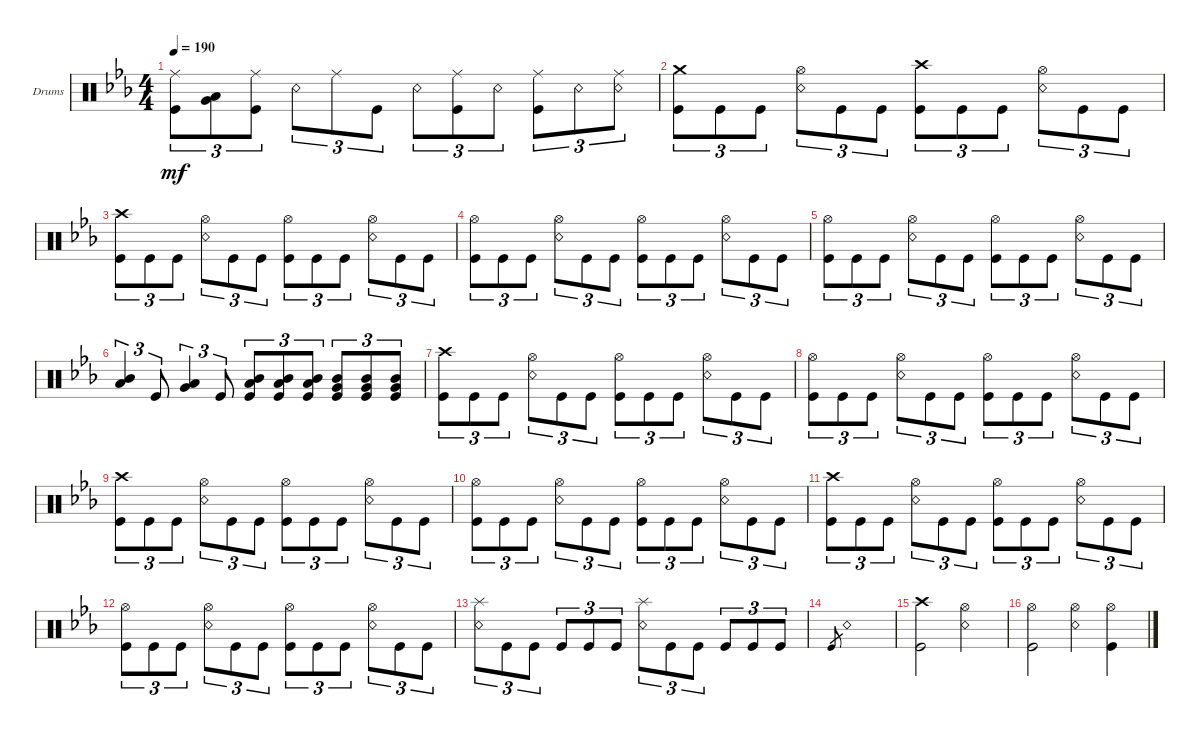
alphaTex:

\defaultSystemsLayout 4
\bracketExtendMode groupsimilarinstruments
\firstSystemTrackNameOrientation horizontal
\otherSystemsTrackNameOrientation horizontal
\track ("Drumkit" "Drums") {instrument percussion}
\staff {score}
\articulation defaults
\ts (4 4)
\tempo 190
\clef neutral
\ks cminor
("Ride (middle)" "Kick (hit)").8{tu (3 2) dy mf} ("Low Tom (hit)" "Very Low Tom (hit)").8{tu (3 2)} ("Ride (middle)" "Kick (hit)").8{tu (3 2)} "Snare (rim shot)".8{tu (3 2)} "Ride (middle)".8{tu (3 2)} "Kick (hit)".8{tu (3 2)} "Snare (rim shot)".8{tu (3 2)} ("Ride (middle)" "Kick (hit)").8{tu (3 2)} "Snare (rim shot)".8{tu (3 2)} ("Ride (middle)" "Kick (hit)").8{tu (3 2)} "Snare (rim shot)".8{tu (3 2)} ("Snare (rim shot)" "Ride (middle)").8{tu (3 2)} |
("Kick (hit)" "Crash medium (hit)").8{tu (3 2)} "Kick (hit)".8{tu (3 2)} "Kick (hit)".8{tu (3 2)} ("Snare (rim shot)" "Hi-Hat (open)").8{tu (3 2)} "Kick (hit)".8{tu (3 2)} "Kick (hit)".8{tu (3 2)} ("Kick (hit)" "Crash high (hit)").8{tu (3 2)} "Kick (hit)".8{tu (3 2)} "Kick (hit)".8{tu (3 2)} ("Snare (rim shot)" "Hi-Hat (open)").8{tu (3 2)} "Kick (hit)".8{tu (3 2)} "Kick (hit)".8{tu (3 2)} |
("Kick (hit)" "Crash high (hit)").8{tu (3 2)} "Kick (hit)".8{tu (3 2)} "Kick (hit)".8{tu (3 2)} ("Snare (rim shot)" "Hi-Hat (open)").8{tu (3 2)} "Kick (hit)".8{tu (3 2)} "Kick (hit)".8{tu (3 2)} ("Kick (hit)" "Hi-Hat (open)").8{tu (3 2)} "Kick (hit)".8{tu (3 2)} "Kick (hit)".8{tu (3 2)} ("Snare (rim shot)" "Hi-Hat (open)").8{tu (3 2)} "Kick (hit)".8{tu (3 2)} "Kick (hit)".8{tu (3 2)} |
("Kick (hit)" "Hi-Hat (open)").8{tu (3 2)} "Kick (hit)".8{tu (3 2)} "Kick (hit)".8{tu (3 2)} ("Snare (rim shot)" "Hi-Hat (open)").8{tu (3 2)} "Kick (hit)".8{tu (3 2)} "Kick (hit)".8{tu (3 2)} ("Kick (hit)" "Hi-Hat (open)").8{tu (3 2)} "Kick (hit)".8{tu (3 2)} "Kick (hit)".8{tu (3 2)} ("Snare (rim shot)" "Hi-Hat (open)").8{tu (3 2)} "Kick (hit)".8{tu (3 2)} "Kick (hit)".8{tu (3 2)} |
("Kick (hit)" "Hi-Hat (open)").8{tu (3 2)} "Kick (hit)".8{tu (3 2)} "Kick (hit)".8{tu (3 2)} ("Snare (rim shot)" "Hi-Hat (open)").8{tu (3 2)} "Kick (hit)".8{tu (3 2)} "Kick (hit)".8{tu (3 2)} ("Kick (hit)" "Hi-Hat (open)").8{tu (3 2)} "Kick (hit)".8{tu (3 2)} "Kick (hit)".8{tu (3 2)} ("Snare (rim shot)" "Hi-Hat (open)").8{tu (3 2)} "Kick (hit)".8{tu (3 2)} "Kick (hit)".8{tu (3 2)} |
("Mid Tom (hit)" "Low Tom (hit)").4{tu (3 2)} "Kick (hit)".8{tu (3 2)} ("Low Tom (hit)" "Very Low Tom (hit)").4{tu (3 2)} "Kick (hit)".8{tu (3 2)} ("Kick (hit)" "Mid Tom (hit)" "Low Tom (hit)").8{tu (3 2)} ("Kick (hit)" "Mid Tom (hit)" "Low Tom (hit)").8{tu (3 2)} ("Kick (hit)" "Mid Tom (hit)" "Low Tom (hit)").8{tu (3 2)} ("Kick (hit)" "Mid Tom (hit)" "Very Low Tom (hit)").8{tu (3 2)} ("Kick (hit)" "Mid Tom (hit)" "Very Low Tom (hit)").8{tu (3 2)} ("Kick (hit)" "Mid Tom (hit)" "Very Low Tom (hit)").8{tu (3 2)} |
("Kick (hit)" "Crash high (hit)").8{tu (3 2)} "Kick (hit)".8{tu (3 2)} "Kick (hit)".8{tu (3 2)} ("Snare (rim shot)" "Hi-Hat (open)").8{tu (3 2)} "Kick (hit)".8{tu (3 2)} "Kick (hit)".8{tu (3 2)} ("Kick (hit)" "Hi-Hat (open)").8{tu (3 2)} "Kick (hit)".8{tu (3 2)} "Kick (hit)".8{tu (3 2)} ("Snare (rim shot)" "Hi-Hat (open)").8{tu (3 2)} "Kick (hit)".8{tu (3 2)} "Kick (hit)".8{tu (3 2)} |
("Kick (hit)" "Hi-Hat (open)").8{tu (3 2)} "Kick (hit)".8{tu (3 2)} "Kick (hit)".8{tu (3 2)} ("Snare (rim shot)" "Hi-Hat (open)").8{tu (3 2)} "Kick (hit)".8{tu (3 2)} "Kick (hit)".8{tu (3 2)} ("Kick (hit)" "Hi-Hat (open)").8{tu (3 2)} "Kick (hit)".8{tu (3 2)} "Kick (hit)".8{tu (3 2)} ("Snare (rim shot)" "Hi-Hat (open)").8{tu (3 2)} "Kick (hit)".8{tu (3 2)} "Kick (hit)".8{tu (3 2)} |
("Kick (hit)" "Crash high (hit)").8{tu (3 2)} "Kick (hit)".8{tu (3 2)} "Kick (hit)".8{tu (3 2)} ("Snare (rim shot)" "Hi-Hat (open)").8{tu (3 2)} "Kick (hit)".8{tu (3 2)} "Kick (hit)".8{tu (3 2)} ("Kick (hit)" "Hi-Hat (open)").8{tu (3 2)} "Kick (hit)".8{tu (3 2)} "Kick (hit)".8{tu (3 2)} ("Snare (rim shot)" "Hi-Hat (open)").8{tu (3 2)} "Kick (hit)".8{tu (3 2)} "Kick (hit)".8{tu (3 2)} |
("Kick (hit)" "Hi-Hat (open)").8{tu (3 2)} "Kick (hit)".8{tu (3 2)} "Kick (hit)".8{tu (3 2)} ("Snare (rim shot)" "Hi-Hat (open)").8{tu (3 2)} "Kick (hit)".8{tu (3 2)} "Kick (hit)".8{tu (3 2)} ("Kick (hit)" "Hi-Hat (open)").8{tu (3 2)} "Kick (hit)".8{tu (3 2)} "Kick (hit)".8{tu (3 2)} ("Snare (rim shot)" "Hi-Hat (open)").8{tu (3 2)} "Kick (hit)".8{tu (3 2)} "Kick (hit)".8{tu (3 2)} |
("Kick (hit)" "Crash high (hit)").8{tu (3 2)} "Kick (hit)".8{tu (3 2)} "Kick (hit)".8{tu (3 2)} ("Snare (rim shot)" "Hi-Hat (open)").8{tu (3 2)} "Kick (hit)".8{tu (3 2)} "Kick (hit)".8{tu (3 2)} ("Kick (hit)" "Hi-Hat (open)").8{tu (3 2)} "Kick (hit)".8{tu (3 2)} "Kick (hit)".8{tu (3 2)} ("Snare (rim shot)" "Hi-Hat (open)").8{tu (3 2)} "Kick (hit)".8{tu (3 2)} "Kick (hit)".8{tu (3 2)} |
("Kick (hit)" "Hi-Hat (open)").8{tu (3 2)} "Kick (hit)".8{tu (3 2)} "Kick (hit)".8{tu (3 2)} ("Snare (rim shot)" "Hi-Hat (open)").8{tu (3 2)} "Kick (hit)".8{tu (3 2)} "Kick (hit)".8{tu (3 2)} ("Kick (hit)" "Hi-Hat (open)").8{tu (3 2)} "Kick (hit)".8{tu (3 2)} "Kick (hit)".8{tu (3 2)} ("Snare (rim shot)" "Hi-Hat (open)").8{tu (3 2)} "Kick (hit)".8{tu (3 2)} "Kick (hit)".8{tu (3 2)} |
("Splash (hit)" "Snare (rim shot)").8{tu (3 2)} "Kick (hit)".8{tu (3 2)} "Kick (hit)".8{tu (3 2)} "Kick (hit)".8{tu (3 2)} "Kick (hit)".8{tu (3 2)} "Kick (hit)".8{tu (3 2)} ("Splash (hit)" "Snare (rim shot)").8{tu (3 2)} "Kick (hit)".8{tu (3 2)} "Kick (hit)".8{tu (3 2)} "Kick (hit)".8{tu (3 2)} "Kick (hit)".8{tu (3 2)} "Kick (hit)".8{tu (3 2)} |
"Kick (hit)".8{tu (3 2) gr} "Snare (rim shot)".1 |
("Kick (hit)" "Crash high (hit)").2 ("Snare (rim shot)" "Hi-Hat (open)").2 |
("Kick (hit)" "Hi-Hat (open)").2 ("Snare (rim shot)" "Hi-Hat (open)").4 ("Kick (hit)" "Hi-Hat (open)").4
